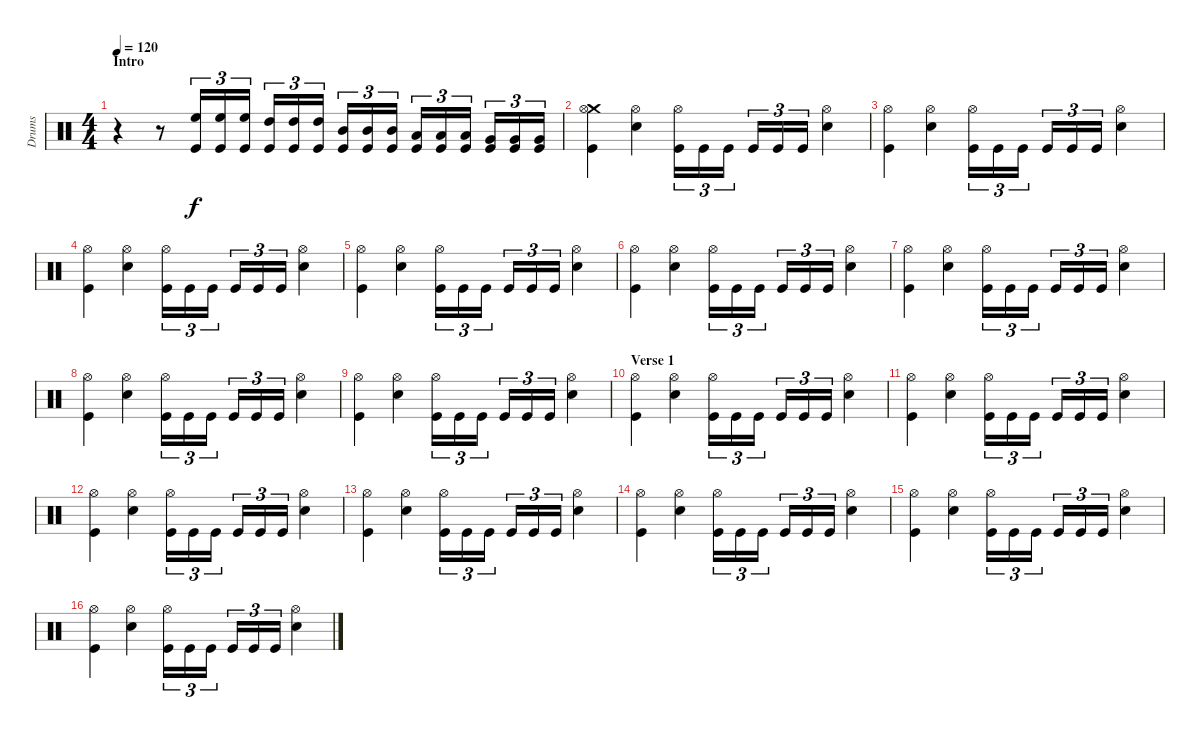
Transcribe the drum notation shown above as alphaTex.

\track ("Drums" "Drums") {instrument percussion}
\staff {score}
\articulation defaults
\ts (4 4)
\section ("" "Intro")
\tempo 120
\clef neutral
\ks c
r.4{dy f} r.8 ("High Floor Tom (hit)" "Kick (hit)").16{tu (3 2)} ("High Floor Tom (hit)" "Kick (hit)").16{tu (3 2)} ("High Floor Tom (hit)" "Kick (hit)").16{tu (3 2)} ("High Tom (hit)" "Kick (hit)").16{tu (3 2)} ("High Tom (hit)" "Kick (hit)").16{tu (3 2)} ("High Tom (hit)" "Kick (hit)").16{tu (3 2)} ("Mid Tom (hit)" "Kick (hit)").16{tu (3 2)} ("Mid Tom (hit)" "Kick (hit)").16{tu (3 2)} ("Mid Tom (hit)" "Kick (hit)").16{tu (3 2)} ("Low Tom (hit)" "Kick (hit)").16{tu (3 2)} ("Low Tom (hit)" "Kick (hit)").16{tu (3 2)} ("Low Tom (hit)" "Kick (hit)").16{tu (3 2)} ("Very Low Tom (hit)" "Kick (hit)").16{tu (3 2)} ("Very Low Tom (hit)" "Kick (hit)").16{tu (3 2)} ("Very Low Tom (hit)" "Kick (hit)").16{tu (3 2)} |
("Crash medium (hit)" "Hi-Hat (open)" "Kick (hit)").4 ("Hi-Hat (open)" "Snare (hit) 2").4 ("Hi-Hat (open)" "Kick (hit)").16{tu (3 2)} "Kick (hit)".16{tu (3 2)} "Kick (hit)".16{tu (3 2)} "Kick (hit)".16{tu (3 2)} "Kick (hit)".16{tu (3 2)} "Kick (hit)".16{tu (3 2)} ("Hi-Hat (open)" "Snare (hit) 2").4 |
("Hi-Hat (open)" "Kick (hit)").4 ("Hi-Hat (open)" "Snare (hit) 2").4 ("Hi-Hat (open)" "Kick (hit)").16{tu (3 2)} "Kick (hit)".16{tu (3 2)} "Kick (hit)".16{tu (3 2)} "Kick (hit)".16{tu (3 2)} "Kick (hit)".16{tu (3 2)} "Kick (hit)".16{tu (3 2)} ("Hi-Hat (open)" "Snare (hit) 2").4 |
("Hi-Hat (open)" "Kick (hit)").4 ("Hi-Hat (open)" "Snare (hit) 2").4 ("Hi-Hat (open)" "Kick (hit)").16{tu (3 2)} "Kick (hit)".16{tu (3 2)} "Kick (hit)".16{tu (3 2)} "Kick (hit)".16{tu (3 2)} "Kick (hit)".16{tu (3 2)} "Kick (hit)".16{tu (3 2)} ("Hi-Hat (open)" "Snare (hit) 2").4 |
("Hi-Hat (open)" "Kick (hit)").4 ("Hi-Hat (open)" "Snare (hit) 2").4 ("Hi-Hat (open)" "Kick (hit)").16{tu (3 2)} "Kick (hit)".16{tu (3 2)} "Kick (hit)".16{tu (3 2)} "Kick (hit)".16{tu (3 2)} "Kick (hit)".16{tu (3 2)} "Kick (hit)".16{tu (3 2)} ("Hi-Hat (open)" "Snare (hit) 2").4 |
("Hi-Hat (open)" "Kick (hit)").4 ("Hi-Hat (open)" "Snare (hit) 2").4 ("Hi-Hat (open)" "Kick (hit)").16{tu (3 2)} "Kick (hit)".16{tu (3 2)} "Kick (hit)".16{tu (3 2)} "Kick (hit)".16{tu (3 2)} "Kick (hit)".16{tu (3 2)} "Kick (hit)".16{tu (3 2)} ("Hi-Hat (open)" "Snare (hit) 2").4 |
("Hi-Hat (open)" "Kick (hit)").4 ("Hi-Hat (open)" "Snare (hit) 2").4 ("Hi-Hat (open)" "Kick (hit)").16{tu (3 2)} "Kick (hit)".16{tu (3 2)} "Kick (hit)".16{tu (3 2)} "Kick (hit)".16{tu (3 2)} "Kick (hit)".16{tu (3 2)} "Kick (hit)".16{tu (3 2)} ("Hi-Hat (open)" "Snare (hit) 2").4 |
("Hi-Hat (open)" "Kick (hit)").4 ("Hi-Hat (open)" "Snare (hit) 2").4 ("Hi-Hat (open)" "Kick (hit)").16{tu (3 2)} "Kick (hit)".16{tu (3 2)} "Kick (hit)".16{tu (3 2)} "Kick (hit)".16{tu (3 2)} "Kick (hit)".16{tu (3 2)} "Kick (hit)".16{tu (3 2)} ("Hi-Hat (open)" "Snare (hit) 2").4 |
("Hi-Hat (open)" "Kick (hit)").4 ("Hi-Hat (open)" "Snare (hit) 2").4 ("Hi-Hat (open)" "Kick (hit)").16{tu (3 2)} "Kick (hit)".16{tu (3 2)} "Kick (hit)".16{tu (3 2)} "Kick (hit)".16{tu (3 2)} "Kick (hit)".16{tu (3 2)} "Kick (hit)".16{tu (3 2)} ("Hi-Hat (open)" "Snare (hit) 2").4 |
\section ("" "Verse 1")
("Hi-Hat (open)" "Kick (hit)").4 ("Hi-Hat (open)" "Snare (hit) 2").4 ("Hi-Hat (open)" "Kick (hit)").16{tu (3 2)} "Kick (hit)".16{tu (3 2)} "Kick (hit)".16{tu (3 2)} "Kick (hit)".16{tu (3 2)} "Kick (hit)".16{tu (3 2)} "Kick (hit)".16{tu (3 2)} ("Hi-Hat (open)" "Snare (hit) 2").4 |
("Hi-Hat (open)" "Kick (hit)").4 ("Hi-Hat (open)" "Snare (hit) 2").4 ("Hi-Hat (open)" "Kick (hit)").16{tu (3 2)} "Kick (hit)".16{tu (3 2)} "Kick (hit)".16{tu (3 2)} "Kick (hit)".16{tu (3 2)} "Kick (hit)".16{tu (3 2)} "Kick (hit)".16{tu (3 2)} ("Hi-Hat (open)" "Snare (hit) 2").4 |
("Hi-Hat (open)" "Kick (hit)").4 ("Hi-Hat (open)" "Snare (hit) 2").4 ("Hi-Hat (open)" "Kick (hit)").16{tu (3 2)} "Kick (hit)".16{tu (3 2)} "Kick (hit)".16{tu (3 2)} "Kick (hit)".16{tu (3 2)} "Kick (hit)".16{tu (3 2)} "Kick (hit)".16{tu (3 2)} ("Hi-Hat (open)" "Snare (hit) 2").4 |
("Hi-Hat (open)" "Kick (hit)").4 ("Hi-Hat (open)" "Snare (hit) 2").4 ("Hi-Hat (open)" "Kick (hit)").16{tu (3 2)} "Kick (hit)".16{tu (3 2)} "Kick (hit)".16{tu (3 2)} "Kick (hit)".16{tu (3 2)} "Kick (hit)".16{tu (3 2)} "Kick (hit)".16{tu (3 2)} ("Hi-Hat (open)" "Snare (hit) 2").4 |
("Hi-Hat (open)" "Kick (hit)").4 ("Hi-Hat (open)" "Snare (hit) 2").4 ("Hi-Hat (open)" "Kick (hit)").16{tu (3 2)} "Kick (hit)".16{tu (3 2)} "Kick (hit)".16{tu (3 2)} "Kick (hit)".16{tu (3 2)} "Kick (hit)".16{tu (3 2)} "Kick (hit)".16{tu (3 2)} ("Hi-Hat (open)" "Snare (hit) 2").4 |
("Hi-Hat (open)" "Kick (hit)").4 ("Hi-Hat (open)" "Snare (hit) 2").4 ("Hi-Hat (open)" "Kick (hit)").16{tu (3 2)} "Kick (hit)".16{tu (3 2)} "Kick (hit)".16{tu (3 2)} "Kick (hit)".16{tu (3 2)} "Kick (hit)".16{tu (3 2)} "Kick (hit)".16{tu (3 2)} ("Hi-Hat (open)" "Snare (hit) 2").4 |
("Hi-Hat (open)" "Kick (hit)").4 ("Hi-Hat (open)" "Snare (hit) 2").4 ("Hi-Hat (open)" "Kick (hit)").16{tu (3 2)} "Kick (hit)".16{tu (3 2)} "Kick (hit)".16{tu (3 2)} "Kick (hit)".16{tu (3 2)} "Kick (hit)".16{tu (3 2)} "Kick (hit)".16{tu (3 2)} ("Hi-Hat (open)" "Snare (hit) 2").4
